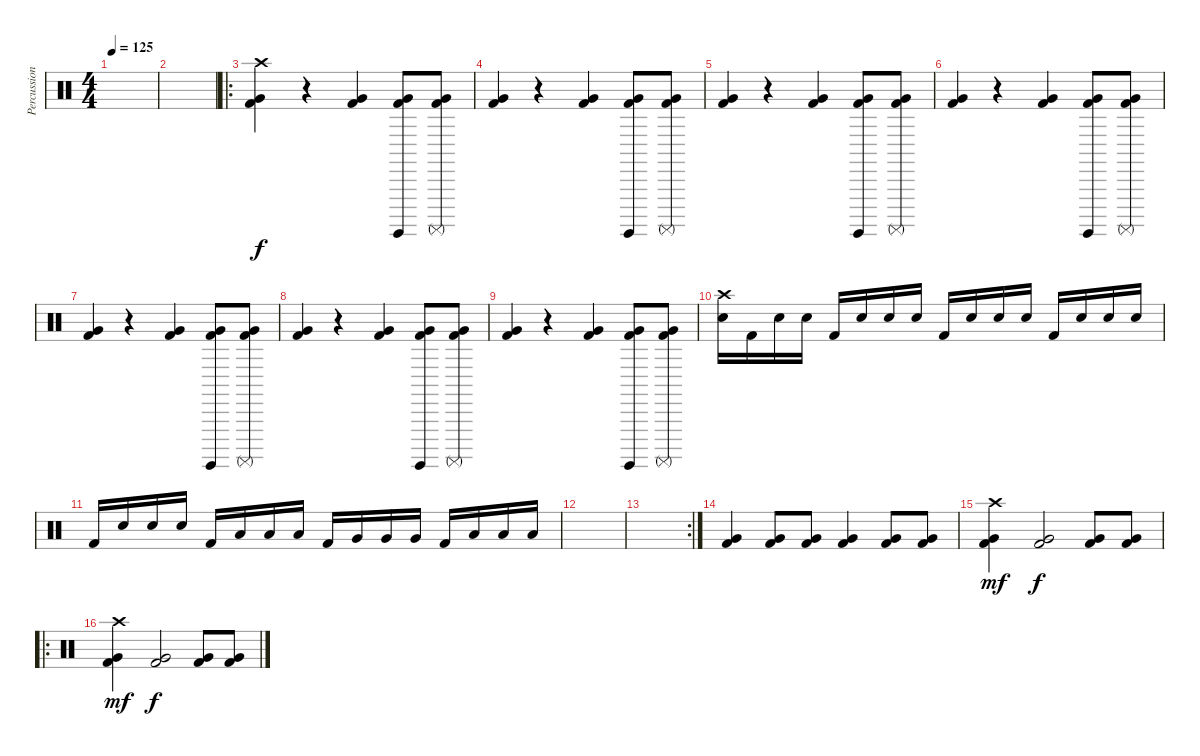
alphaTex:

\track ("Percussion" "Percussion") {instrument percussion}
\staff {score}
\articulation defaults
\ts (4 4)
\tempo 125
\clef neutral
\ks c
|
|
\ro
("Crash high (hit)" "Very Low Tom (hit)" "Kick (hit) 2").4 r.4 ("Very Low Tom (hit)" "Kick (hit) 2").4 ("Surdo (hit)" "Very Low Tom (hit)" "Kick (hit) 2").8 ("Surdo (mute)" "Very Low Tom (hit)" "Kick (hit) 2").8 |
("Very Low Tom (hit)" "Kick (hit) 2").4 r.4 ("Very Low Tom (hit)" "Kick (hit) 2").4 ("Surdo (hit)" "Very Low Tom (hit)" "Kick (hit) 2").8 ("Surdo (mute)" "Very Low Tom (hit)" "Kick (hit) 2").8 |
("Very Low Tom (hit)" "Kick (hit) 2").4 r.4 ("Very Low Tom (hit)" "Kick (hit) 2").4 ("Surdo (hit)" "Very Low Tom (hit)" "Kick (hit) 2").8 ("Surdo (mute)" "Very Low Tom (hit)" "Kick (hit) 2").8 |
("Very Low Tom (hit)" "Kick (hit) 2").4 r.4 ("Very Low Tom (hit)" "Kick (hit) 2").4 ("Surdo (hit)" "Very Low Tom (hit)" "Kick (hit) 2").8 ("Surdo (mute)" "Very Low Tom (hit)" "Kick (hit) 2").8 |
("Very Low Tom (hit)" "Kick (hit) 2").4 r.4 ("Very Low Tom (hit)" "Kick (hit) 2").4 ("Surdo (hit)" "Very Low Tom (hit)" "Kick (hit) 2").8 ("Surdo (mute)" "Very Low Tom (hit)" "Kick (hit) 2").8 |
("Very Low Tom (hit)" "Kick (hit) 2").4 r.4 ("Very Low Tom (hit)" "Kick (hit) 2").4 ("Surdo (hit)" "Very Low Tom (hit)" "Kick (hit) 2").8 ("Surdo (mute)" "Very Low Tom (hit)" "Kick (hit) 2").8 |
("Very Low Tom (hit)" "Kick (hit) 2").4 r.4 ("Very Low Tom (hit)" "Kick (hit) 2").4 ("Surdo (hit)" "Very Low Tom (hit)" "Kick (hit) 2").8 ("Surdo (mute)" "Very Low Tom (hit)" "Kick (hit) 2").8 |
("Crash high (hit)" "Snare (hit) 2").16 "Kick (hit) 2".16 "Snare (hit) 2".16 "Snare (hit) 2".16 "Kick (hit) 2".16 "Snare (hit) 2".16 "Snare (hit) 2".16 "Snare (hit) 2".16 "Kick (hit) 2".16 "Snare (hit) 2".16 "Snare (hit) 2".16 "Snare (hit) 2".16 "Kick (hit) 2".16 "Snare (hit) 2".16 "Snare (hit) 2".16 "Snare (hit) 2".16 |
"Kick (hit) 2".16 "Snare (hit) 2".16 "Snare (hit) 2".16 "Snare (hit) 2".16 "Kick (hit) 2".16 "Low Floor Tom (hit)".16 "Low Floor Tom (hit)".16 "Low Floor Tom (hit)".16 "Kick (hit) 2".16 "Very Low Tom (hit)".16 "Very Low Tom (hit)".16 "Very Low Tom (hit)".16 "Kick (hit) 2".16 "Low Tom (hit)".16 "Low Tom (hit)".16 "Low Tom (hit)".16 |
|
\rc 2
|
("Very Low Tom (hit)" "Kick (hit) 2").4 ("Very Low Tom (hit)" "Kick (hit) 2").8 ("Very Low Tom (hit)" "Kick (hit) 2").8 ("Very Low Tom (hit)" "Kick (hit) 2").4 ("Very Low Tom (hit)" "Kick (hit) 2").8 ("Very Low Tom (hit)" "Kick (hit) 2").8 |
("Crash high (hit)" "Very Low Tom (hit)" "Kick (hit) 2").4{dy mf} ("Very Low Tom (hit)" "Kick (hit) 2").2{dy f} ("Very Low Tom (hit)" "Kick (hit) 2").8 ("Very Low Tom (hit)" "Kick (hit) 2").8 |
\ro
("Crash high (hit)" "Very Low Tom (hit)" "Kick (hit) 2").4{dy mf} ("Very Low Tom (hit)" "Kick (hit) 2").2{dy f} ("Very Low Tom (hit)" "Kick (hit) 2").8 ("Very Low Tom (hit)" "Kick (hit) 2").8
